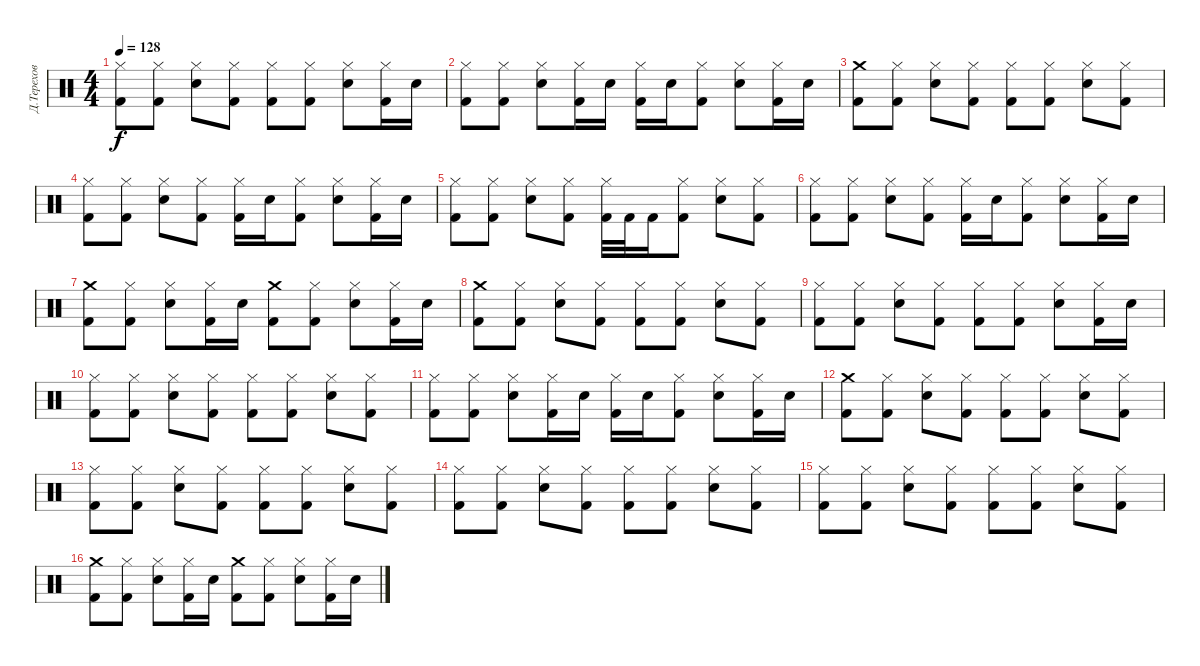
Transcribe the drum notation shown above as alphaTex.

\track ("Д.Терехов" "Д.Терехов") {instrument percussion}
\staff {score}
\articulation defaults
\ts (4 4)
\tempo 128
\clef neutral
\ks c
("Hi-Hat (closed)" "Kick (hit) 2").8{dy f} ("Hi-Hat (closed)" "Kick (hit) 2").8 ("Hi-Hat (closed)" "Electric Snare (hit)").8 ("Hi-Hat (closed)" "Kick (hit) 2").8 ("Hi-Hat (closed)" "Kick (hit) 2").8 ("Hi-Hat (closed)" "Kick (hit) 2").8 ("Hi-Hat (closed)" "Electric Snare (hit)").8 ("Hi-Hat (closed)" "Kick (hit) 2").16 "Electric Snare (hit)".16 |
("Hi-Hat (closed)" "Kick (hit) 2").8 ("Hi-Hat (closed)" "Kick (hit) 2").8 ("Hi-Hat (closed)" "Electric Snare (hit)").8 ("Hi-Hat (closed)" "Kick (hit) 2").16 "Electric Snare (hit)".16 ("Hi-Hat (closed)" "Kick (hit) 2").16 "Electric Snare (hit)".16 ("Hi-Hat (closed)" "Kick (hit) 2").8 ("Hi-Hat (closed)" "Electric Snare (hit)").8 ("Hi-Hat (closed)" "Kick (hit) 2").16 "Electric Snare (hit)".16 |
("Crash medium (hit)" "Kick (hit) 2").8 ("Hi-Hat (closed)" "Kick (hit) 2").8 ("Hi-Hat (closed)" "Electric Snare (hit)").8 ("Hi-Hat (closed)" "Kick (hit) 2").8 ("Hi-Hat (closed)" "Kick (hit) 2").8 ("Hi-Hat (closed)" "Kick (hit) 2").8 ("Hi-Hat (closed)" "Electric Snare (hit)").8 ("Hi-Hat (closed)" "Kick (hit) 2").8 |
("Hi-Hat (closed)" "Kick (hit) 2").8 ("Hi-Hat (closed)" "Kick (hit) 2").8 ("Hi-Hat (closed)" "Electric Snare (hit)").8 ("Hi-Hat (closed)" "Kick (hit) 2").8 ("Hi-Hat (closed)" "Kick (hit) 2").16 "Electric Snare (hit)".16 ("Hi-Hat (closed)" "Kick (hit) 2").8 ("Hi-Hat (closed)" "Electric Snare (hit)").8 ("Hi-Hat (closed)" "Kick (hit) 2").16 "Electric Snare (hit)".16 |
("Hi-Hat (closed)" "Kick (hit) 2").8 ("Hi-Hat (closed)" "Kick (hit) 2").8 ("Hi-Hat (closed)" "Electric Snare (hit)").8 ("Hi-Hat (closed)" "Kick (hit) 2").8 ("Hi-Hat (closed)" "Kick (hit) 2").32 "Kick (hit) 2".32 "Kick (hit) 2".16 ("Hi-Hat (closed)" "Kick (hit) 2").8 ("Hi-Hat (closed)" "Electric Snare (hit)").8 ("Hi-Hat (closed)" "Kick (hit) 2").8 |
("Hi-Hat (closed)" "Kick (hit) 2").8 ("Hi-Hat (closed)" "Kick (hit) 2").8 ("Hi-Hat (closed)" "Electric Snare (hit)").8 ("Hi-Hat (closed)" "Kick (hit) 2").8 ("Hi-Hat (closed)" "Kick (hit) 2").16 "Electric Snare (hit)".16 ("Hi-Hat (closed)" "Kick (hit) 2").8 ("Hi-Hat (closed)" "Electric Snare (hit)").8 ("Hi-Hat (closed)" "Kick (hit) 2").16 "Electric Snare (hit)".16 |
("Crash medium (hit)" "Kick (hit) 2").8 ("Hi-Hat (closed)" "Kick (hit) 2").8 ("Hi-Hat (closed)" "Electric Snare (hit)").8 ("Hi-Hat (closed)" "Kick (hit) 2").16 "Electric Snare (hit)".16 ("Crash medium (hit)" "Kick (hit) 2").8 ("Hi-Hat (closed)" "Kick (hit) 2").8 ("Hi-Hat (closed)" "Electric Snare (hit)").8 ("Hi-Hat (closed)" "Kick (hit) 2").16 "Electric Snare (hit)".16 |
("Crash medium (hit)" "Kick (hit) 2").8 ("Hi-Hat (closed)" "Kick (hit) 2").8 ("Hi-Hat (closed)" "Electric Snare (hit)").8 ("Hi-Hat (closed)" "Kick (hit) 2").8 ("Hi-Hat (closed)" "Kick (hit) 2").8 ("Hi-Hat (closed)" "Kick (hit) 2").8 ("Hi-Hat (closed)" "Electric Snare (hit)").8 ("Hi-Hat (closed)" "Kick (hit) 2").8 |
("Hi-Hat (closed)" "Kick (hit) 2").8 ("Hi-Hat (closed)" "Kick (hit) 2").8 ("Hi-Hat (closed)" "Electric Snare (hit)").8 ("Hi-Hat (closed)" "Kick (hit) 2").8 ("Hi-Hat (closed)" "Kick (hit) 2").8 ("Hi-Hat (closed)" "Kick (hit) 2").8 ("Hi-Hat (closed)" "Electric Snare (hit)").8 ("Hi-Hat (closed)" "Kick (hit) 2").16 "Electric Snare (hit)".16 |
("Hi-Hat (closed)" "Kick (hit) 2").8 ("Hi-Hat (closed)" "Kick (hit) 2").8 ("Hi-Hat (closed)" "Electric Snare (hit)").8 ("Hi-Hat (closed)" "Kick (hit) 2").8 ("Hi-Hat (closed)" "Kick (hit) 2").8 ("Hi-Hat (closed)" "Kick (hit) 2").8 ("Hi-Hat (closed)" "Electric Snare (hit)").8 ("Hi-Hat (closed)" "Kick (hit) 2").8 |
("Hi-Hat (closed)" "Kick (hit) 2").8 ("Hi-Hat (closed)" "Kick (hit) 2").8 ("Hi-Hat (closed)" "Electric Snare (hit)").8 ("Hi-Hat (closed)" "Kick (hit) 2").16 "Electric Snare (hit)".16 ("Hi-Hat (closed)" "Kick (hit) 2").16 "Electric Snare (hit)".16 ("Hi-Hat (closed)" "Kick (hit) 2").8 ("Hi-Hat (closed)" "Electric Snare (hit)").8 ("Hi-Hat (closed)" "Kick (hit) 2").16 "Electric Snare (hit)".16 |
("Crash medium (hit)" "Kick (hit) 2").8 ("Hi-Hat (closed)" "Kick (hit) 2").8 ("Hi-Hat (closed)" "Electric Snare (hit)").8 ("Hi-Hat (closed)" "Kick (hit) 2").8 ("Hi-Hat (closed)" "Kick (hit) 2").8 ("Hi-Hat (closed)" "Kick (hit) 2").8 ("Hi-Hat (closed)" "Electric Snare (hit)").8 ("Hi-Hat (closed)" "Kick (hit) 2").8 |
("Hi-Hat (closed)" "Kick (hit) 2").8 ("Hi-Hat (closed)" "Kick (hit) 2").8 ("Hi-Hat (closed)" "Electric Snare (hit)").8 ("Hi-Hat (closed)" "Kick (hit) 2").8 ("Hi-Hat (closed)" "Kick (hit) 2").8 ("Hi-Hat (closed)" "Kick (hit) 2").8 ("Hi-Hat (closed)" "Electric Snare (hit)").8 ("Hi-Hat (closed)" "Kick (hit) 2").8 |
("Hi-Hat (closed)" "Kick (hit) 2").8 ("Hi-Hat (closed)" "Kick (hit) 2").8 ("Hi-Hat (closed)" "Electric Snare (hit)").8 ("Hi-Hat (closed)" "Kick (hit) 2").8 ("Hi-Hat (closed)" "Kick (hit) 2").8 ("Hi-Hat (closed)" "Kick (hit) 2").8 ("Hi-Hat (closed)" "Electric Snare (hit)").8 ("Hi-Hat (closed)" "Kick (hit) 2").8 |
("Hi-Hat (closed)" "Kick (hit) 2").8 ("Hi-Hat (closed)" "Kick (hit) 2").8 ("Hi-Hat (closed)" "Electric Snare (hit)").8 ("Hi-Hat (closed)" "Kick (hit) 2").8 ("Hi-Hat (closed)" "Kick (hit) 2").8 ("Hi-Hat (closed)" "Kick (hit) 2").8 ("Hi-Hat (closed)" "Electric Snare (hit)").8 ("Hi-Hat (closed)" "Kick (hit) 2").8 |
("Crash medium (hit)" "Kick (hit) 2").8 ("Hi-Hat (closed)" "Kick (hit) 2").8 ("Hi-Hat (closed)" "Electric Snare (hit)").8 ("Hi-Hat (closed)" "Kick (hit) 2").16 "Electric Snare (hit)".16 ("Crash medium (hit)" "Kick (hit) 2").8 ("Hi-Hat (closed)" "Kick (hit) 2").8 ("Hi-Hat (closed)" "Electric Snare (hit)").8 ("Hi-Hat (closed)" "Kick (hit) 2").16 "Electric Snare (hit)".16
